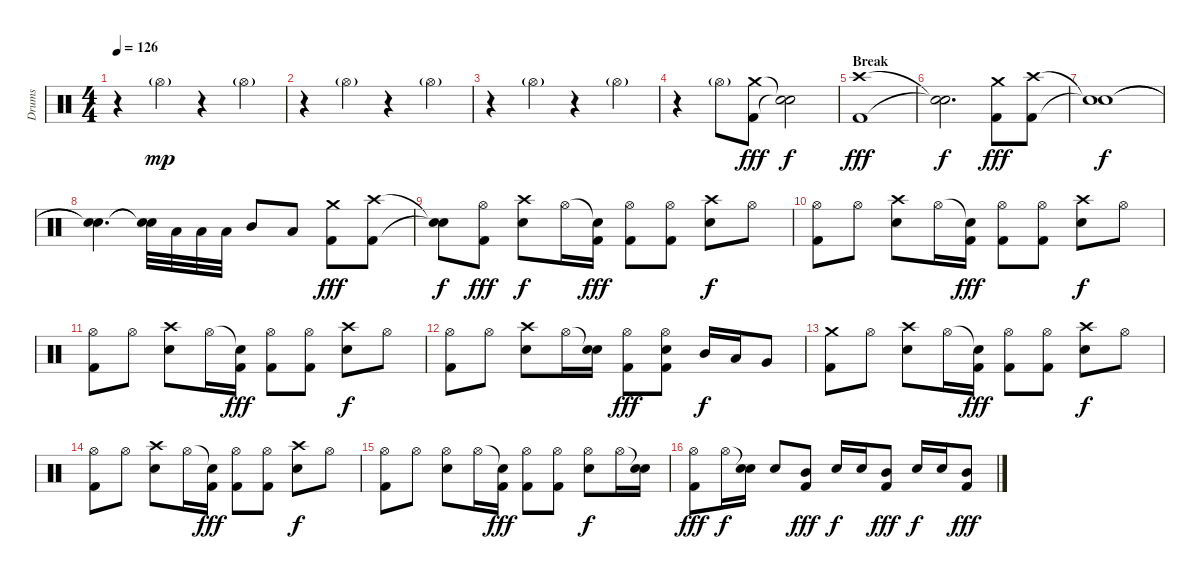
\track ("Drums" "Drums") {instrument percussion}
\staff {score}
\articulation defaults
\ts (4 4)
\tempo 126
\clef neutral
\ks c
r.4{dy mp} "Hi-Hat (open)"{g}.4 r.4 "Hi-Hat (open)"{g}.4 |
r.4 "Hi-Hat (open)"{g}.4 r.4 "Hi-Hat (open)"{g}.4 |
r.4 "Hi-Hat (open)"{g}.4 r.4 "Hi-Hat (open)"{g}.4 |
r.4 "Hi-Hat (open)"{g}.8 ("Crash medium (hit)" "Kick (hit) 2").8{dy fff} ("Snare (hit)"{t} "Snare (hit)"{t}).2{dy f} |
\section ("" "Break")
("Crash high (hit)" "Kick (hit) 2").1{dy fff} |
("Snare (hit)"{t} "Snare (hit)"{t}).2{d dy f} ("Crash medium (hit)" "Kick (hit) 2").8{dy fff} ("Crash high (hit)" "Kick (hit) 2").8 |
("Snare (hit)"{t} "Snare (hit)"{t}).1{dy f} |
("Snare (hit)"{t} "Snare (hit)"{t}).4{d} ("Snare (hit)"{t} "Snare (hit)"{t}).32 "Low Tom (hit)".32 "Low Tom (hit)".32 "Low Tom (hit)".32 "Mid Tom (hit)".8 "Low Tom (hit)".8 ("Crash medium (hit)" "Kick (hit) 2").8{dy fff} ("Crash high (hit)" "Kick (hit) 2").8 |
("Snare (hit)"{t} "Snare (hit)"{t}).8{dy f} ("Hi-Hat (open)" "Kick (hit) 2").8{dy fff} ("Crash high (hit)" "Snare (hit) 2").8{dy f} "Hi-Hat (open)".16 ("Snare (hit)"{t} "Kick (hit) 2").16{dy fff} ("Hi-Hat (open)" "Kick (hit) 2").8 ("Hi-Hat (open)" "Kick (hit) 2").8 ("Crash high (hit)" "Snare (hit) 2").8{dy f} "Hi-Hat (open)".8 |
("Hi-Hat (open)" "Kick (hit) 2").8 "Hi-Hat (open)".8 ("Crash high (hit)" "Snare (hit) 2").8 "Hi-Hat (open)".16 ("Snare (hit)"{t} "Kick (hit) 2").16{dy fff} ("Hi-Hat (open)" "Kick (hit) 2").8 ("Hi-Hat (open)" "Kick (hit) 2").8 ("Crash high (hit)" "Snare (hit) 2").8{dy f} "Hi-Hat (open)".8 |
("Hi-Hat (open)" "Kick (hit) 2").8 "Hi-Hat (open)".8 ("Crash high (hit)" "Snare (hit) 2").8 "Hi-Hat (open)".16 ("Snare (hit)"{t} "Kick (hit) 2").16{dy fff} ("Hi-Hat (open)" "Kick (hit) 2").8 ("Hi-Hat (open)" "Kick (hit) 2").8 ("Crash high (hit)" "Snare (hit) 2").8{dy f} "Hi-Hat (open)".8 |
("Hi-Hat (open)" "Kick (hit) 2").8 "Hi-Hat (open)".8 ("Crash high (hit)" "Snare (hit) 2").8 "Hi-Hat (open)".16 ("Snare (hit)"{t} "Snare (hit) 2").16 ("Hi-Hat (open)" "Kick (hit) 2").8{dy fff} ("Hi-Hat (open)" "Snare (hit) 2" "Kick (hit) 2").8 "Mid Tom (hit)".16{dy f} "Low Tom (hit)".16 "Very Low Tom (hit)".8 |
("Crash medium (hit)" "Kick (hit) 2").8 "Hi-Hat (open)".8 ("Crash high (hit)" "Snare (hit) 2").8 "Hi-Hat (open)".16 ("Snare (hit)"{t} "Kick (hit) 2").16{dy fff} ("Hi-Hat (open)" "Kick (hit) 2").8 ("Hi-Hat (open)" "Kick (hit) 2").8 ("Crash high (hit)" "Snare (hit) 2").8{dy f} "Hi-Hat (open)".8 |
("Hi-Hat (open)" "Kick (hit) 2").8 "Hi-Hat (open)".8 ("Crash high (hit)" "Snare (hit) 2").8 "Hi-Hat (open)".16 ("Snare (hit)"{t} "Kick (hit) 2").16{dy fff} ("Hi-Hat (open)" "Kick (hit) 2").8 ("Hi-Hat (open)" "Kick (hit) 2").8 ("Crash high (hit)" "Snare (hit) 2").8{dy f} "Hi-Hat (open)".8 |
("Hi-Hat (open)" "Kick (hit) 2").8 "Hi-Hat (open)".8 ("Hi-Hat (open)" "Snare (hit) 2").8 "Hi-Hat (open)".16 ("Snare (hit)"{t} "Kick (hit) 2").16{dy fff} ("Hi-Hat (open)" "Kick (hit) 2").8 ("Hi-Hat (open)" "Kick (hit) 2").8 ("Hi-Hat (open)" "Snare (hit) 2").8{dy f} "Hi-Hat (open)".16 ("Snare (hit)"{t} "Snare (hit) 2").16 |
("Hi-Hat (open)" "Kick (hit) 2").8{dy fff} "Hi-Hat (open)".16{dy f} ("Snare (hit)"{t} "Snare (hit) 2").16 "Snare (hit) 2".8 ("Mid Tom (hit)" "Kick (hit) 2").8{dy fff} "Snare (hit) 2".16{dy f} "Snare (hit) 2".16 ("Mid Tom (hit)" "Kick (hit) 2").8{dy fff} "Snare (hit) 2".16{dy f} "Snare (hit) 2".16 ("Mid Tom (hit)" "Kick (hit) 2").8{dy fff}
